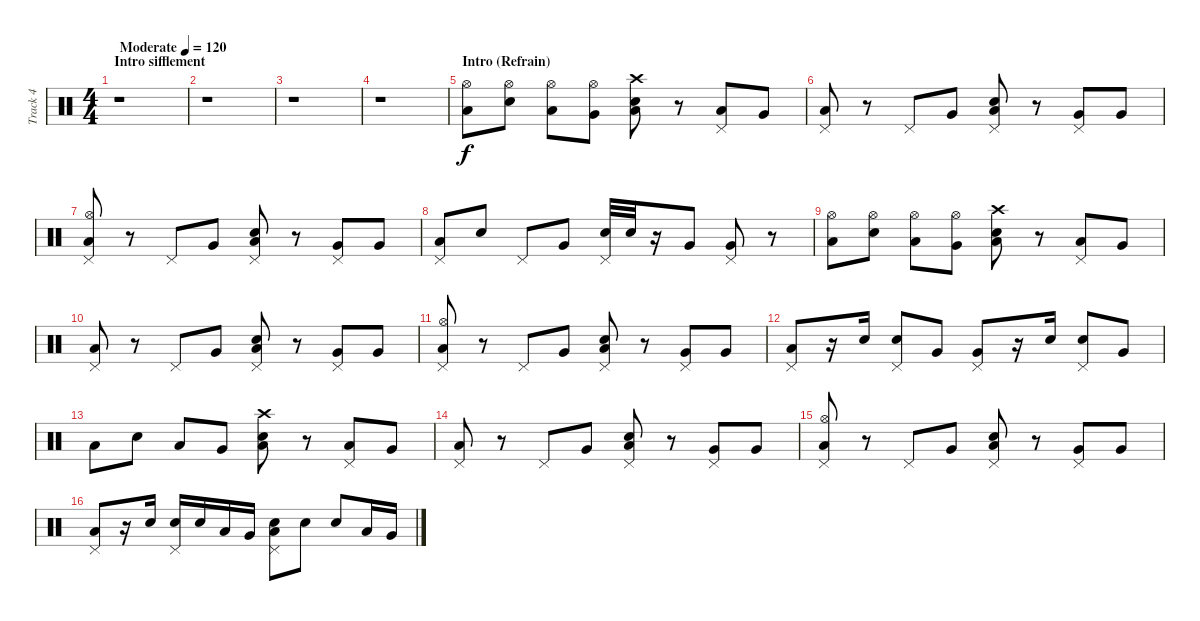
\track ("Track 4" "Track 4") {instrument percussion}
\staff {score}
\articulation defaults
\ts (4 4)
\section ("" "Intro sifflement")
\tempo (120 "Moderate")
\clef neutral
\ks c
r.1{dy f} |
r.1 |
r.1 |
r.1 |
\section ("" "Intro (Refrain)")
("Low Tom (hit)" "Hi-Hat (open)").8 ("Electric Snare (hit)" "Hi-Hat (open)").8 ("Low Tom (hit)" "Hi-Hat (open)").8 ("Very Low Tom (hit)" "Hi-Hat (open)").8 ("Low Tom (hit)" "Electric Snare (hit)" "Crash high (hit)").8 r.8 ("Pedal Hi-Hat (hit)" "Low Floor Tom (hit)").8 "Very Low Tom (hit)".8 |
("Pedal Hi-Hat (hit)" "Low Tom (hit)").8 r.8 "Pedal Hi-Hat (hit)".8 "Very Low Tom (hit)".8 ("Pedal Hi-Hat (hit)" "Low Tom (hit)" "Electric Snare (hit)").8 r.8 ("Pedal Hi-Hat (hit)" "Very Low Tom (hit)").8 "Very Low Tom (hit)".8 |
("Pedal Hi-Hat (hit)" "Low Tom (hit)" "Hi-Hat (open)").8 r.8 "Pedal Hi-Hat (hit)".8 "Very Low Tom (hit)".8 ("Pedal Hi-Hat (hit)" "Low Tom (hit)" "Electric Snare (hit)").8 r.8 ("Pedal Hi-Hat (hit)" "Very Low Tom (hit)").8 "Very Low Tom (hit)".8 |
("Pedal Hi-Hat (hit)" "Low Tom (hit)").8 "Electric Snare (hit)".8 "Pedal Hi-Hat (hit)".8 "Very Low Tom (hit)".8 ("Pedal Hi-Hat (hit)" "Electric Snare (hit)").32 "Electric Snare (hit)".32 r.16 "Very Low Tom (hit)".8 ("Pedal Hi-Hat (hit)" "Very Low Tom (hit)").8 r.8 |
("Low Tom (hit)" "Hi-Hat (open)").8 ("Electric Snare (hit)" "Hi-Hat (open)").8 ("Low Tom (hit)" "Hi-Hat (open)").8 ("Very Low Tom (hit)" "Hi-Hat (open)").8 ("Low Tom (hit)" "Electric Snare (hit)" "Crash high (hit)").8 r.8 ("Pedal Hi-Hat (hit)" "Low Floor Tom (hit)").8 "Very Low Tom (hit)".8 |
("Pedal Hi-Hat (hit)" "Low Tom (hit)").8 r.8 "Pedal Hi-Hat (hit)".8 "Very Low Tom (hit)".8 ("Pedal Hi-Hat (hit)" "Low Tom (hit)" "Electric Snare (hit)").8 r.8 ("Pedal Hi-Hat (hit)" "Very Low Tom (hit)").8 "Very Low Tom (hit)".8 |
("Pedal Hi-Hat (hit)" "Low Tom (hit)" "Hi-Hat (open)").8 r.8 "Pedal Hi-Hat (hit)".8 "Very Low Tom (hit)".8 ("Pedal Hi-Hat (hit)" "Low Tom (hit)" "Electric Snare (hit)").8 r.8 ("Pedal Hi-Hat (hit)" "Very Low Tom (hit)").8 "Very Low Tom (hit)".8 |
("Pedal Hi-Hat (hit)" "Low Tom (hit)").8 r.16 "Electric Snare (hit)".16 ("Pedal Hi-Hat (hit)" "Electric Snare (hit)").8 "Very Low Tom (hit)".8 ("Pedal Hi-Hat (hit)" "Very Low Tom (hit)").8 r.16 "Electric Snare (hit)".16 ("Pedal Hi-Hat (hit)" "Electric Snare (hit)").8 "Very Low Tom (hit)".8 |
"Low Tom (hit)".8 "Electric Snare (hit)".8 "Low Tom (hit)".8 "Very Low Tom (hit)".8 ("Low Tom (hit)" "Electric Snare (hit)" "Crash high (hit)").8 r.8 ("Pedal Hi-Hat (hit)" "Low Floor Tom (hit)").8 "Very Low Tom (hit)".8 |
("Pedal Hi-Hat (hit)" "Low Tom (hit)").8 r.8 "Pedal Hi-Hat (hit)".8 "Very Low Tom (hit)".8 ("Pedal Hi-Hat (hit)" "Low Tom (hit)" "Electric Snare (hit)").8 r.8 ("Pedal Hi-Hat (hit)" "Very Low Tom (hit)").8 "Very Low Tom (hit)".8 |
("Pedal Hi-Hat (hit)" "Low Tom (hit)" "Hi-Hat (open)").8 r.8 "Pedal Hi-Hat (hit)".8 "Very Low Tom (hit)".8 ("Pedal Hi-Hat (hit)" "Low Tom (hit)" "Electric Snare (hit)").8 r.8 ("Pedal Hi-Hat (hit)" "Very Low Tom (hit)").8 "Very Low Tom (hit)".8 |
("Pedal Hi-Hat (hit)" "Low Tom (hit)").8 r.16 "Electric Snare (hit)".16 ("Pedal Hi-Hat (hit)" "Electric Snare (hit)").16 "Electric Snare (hit)".16 "Low Tom (hit)".16 "Very Low Tom (hit)".16 ("Electric Snare (hit)" "Low Floor Tom (hit)" "Pedal Hi-Hat (hit)").8 "Electric Snare (hit)".8 "Electric Snare (hit)".8 "Low Tom (hit)".16 "Very Low Tom (hit)".16
